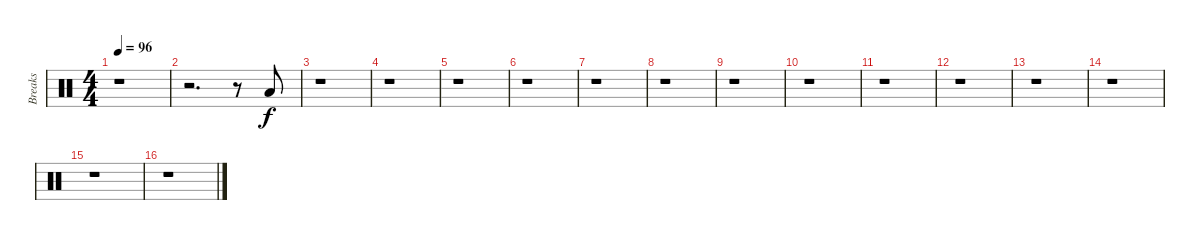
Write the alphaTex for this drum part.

\track ("Breaks" "Breaks") {instrument percussion}
\staff {score}
\articulation defaults
\ts (4 4)
\tempo 96
\clef neutral
\ks c
r.1{dy f} |
r.2{d} r.8 "Low Floor Tom (hit)".8 |
r.1 |
r.1 |
r.1 |
r.1 |
r.1 |
r.1 |
r.1 |
r.1 |
r.1 |
r.1 |
r.1 |
r.1 |
r.1 |
r.1
